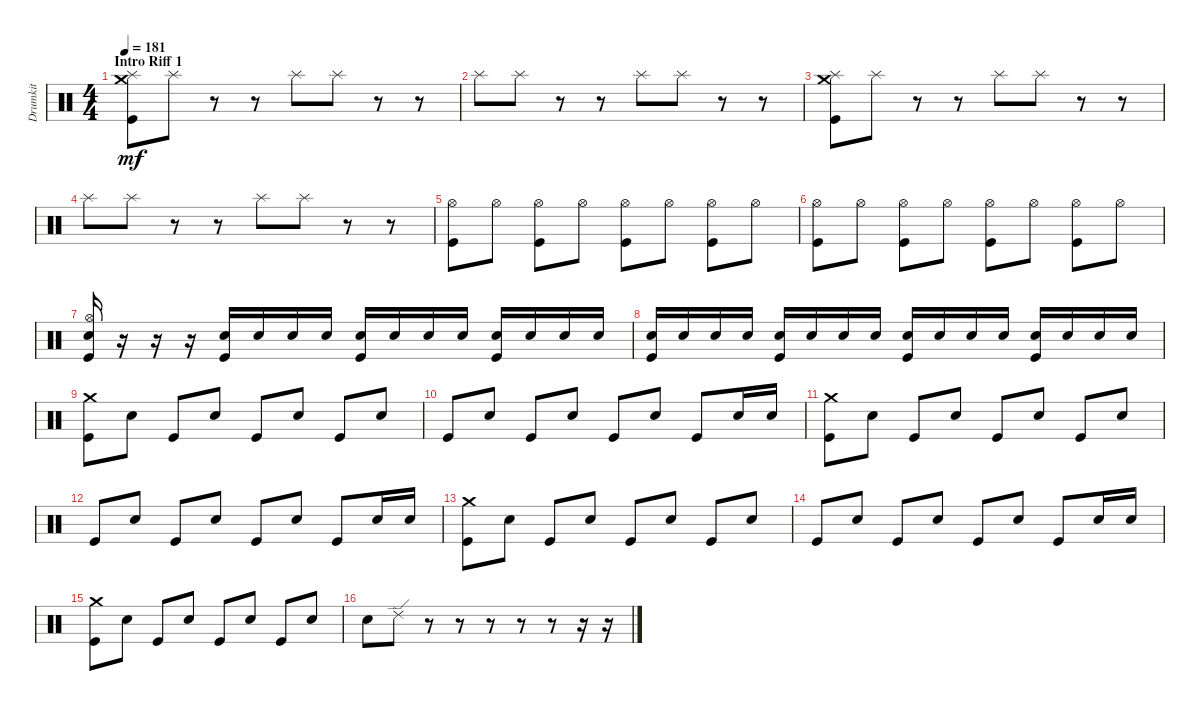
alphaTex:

\track ("Drumkit" "Drumkit") {instrument percussion}
\staff {score}
\articulation defaults
\ts (4 4)
\section ("" "Intro Riff 1")
\tempo 181
\clef neutral
\ks c
("Crash medium (hit)" "Splash (hit)" "Kick (hit)").8{dy mf} "Splash (hit)".8 r.8 r.8 "Splash (hit)".8 "Splash (hit)".8 r.8 r.8 |
"Splash (hit)".8 "Splash (hit)".8 r.8 r.8 "Splash (hit)".8 "Splash (hit)".8 r.8 r.8 |
("Crash medium (hit)" "Splash (hit)" "Kick (hit)").8 "Splash (hit)".8 r.8 r.8 "Splash (hit)".8 "Splash (hit)".8 r.8 r.8 |
"Splash (hit)".8 "Splash (hit)".8 r.8 r.8 "Splash (hit)".8 "Splash (hit)".8 r.8 r.8 |
("Kick (hit)" "Hi-Hat (open)").8 "Hi-Hat (open)".8 ("Kick (hit)" "Hi-Hat (open)").8 "Hi-Hat (open)".8 ("Hi-Hat (open)" "Kick (hit)").8 "Hi-Hat (open)".8 ("Hi-Hat (open)" "Kick (hit)").8 "Hi-Hat (open)".8 |
("Kick (hit)" "Hi-Hat (open)").8 "Hi-Hat (open)".8 ("Kick (hit)" "Hi-Hat (open)").8 "Hi-Hat (open)".8 ("Hi-Hat (open)" "Kick (hit)").8 "Hi-Hat (open)".8 ("Hi-Hat (open)" "Kick (hit)").8 "Hi-Hat (open)".8 |
("Kick (hit)" "Hi-Hat (open)" "Snare (hit) 2").16 r.16 r.16 r.16 ("Kick (hit)" "Snare (hit) 2").16 "Snare (hit) 2".16 "Snare (hit) 2".16 "Snare (hit) 2".16 ("Snare (hit) 2" "Kick (hit)").16 "Snare (hit) 2".16 "Snare (hit) 2".16 "Snare (hit) 2".16 ("Snare (hit) 2" "Kick (hit)").16 "Snare (hit) 2".16 "Snare (hit) 2".16 "Snare (hit) 2".16 |
("Kick (hit)" "Snare (hit) 2").16 "Snare (hit) 2".16 "Snare (hit) 2".16 "Snare (hit) 2".16 ("Snare (hit) 2" "Kick (hit)").16 "Snare (hit) 2".16 "Snare (hit) 2".16 "Snare (hit) 2".16 ("Snare (hit) 2" "Kick (hit)").16 "Snare (hit) 2".16 "Snare (hit) 2".16 "Snare (hit) 2".16 ("Snare (hit) 2" "Kick (hit)").16 "Snare (hit) 2".16 "Snare (hit) 2".16 "Snare (hit) 2".16 |
("Kick (hit)" "Crash medium (hit)").8 "Snare (hit) 2".8 "Kick (hit)".8 "Snare (hit) 2".8 "Kick (hit)".8 "Snare (hit) 2".8 "Kick (hit)".8 "Snare (hit) 2".8 |
"Kick (hit)".8 "Snare (hit) 2".8 "Kick (hit)".8 "Snare (hit) 2".8 "Kick (hit)".8 "Snare (hit) 2".8 "Kick (hit)".8 "Snare (hit) 2".16 "Snare (hit) 2".16 |
("Kick (hit)" "Crash medium (hit)").8 "Snare (hit) 2".8 "Kick (hit)".8 "Snare (hit) 2".8 "Kick (hit)".8 "Snare (hit) 2".8 "Kick (hit)".8 "Snare (hit) 2".8 |
"Kick (hit)".8 "Snare (hit) 2".8 "Kick (hit)".8 "Snare (hit) 2".8 "Kick (hit)".8 "Snare (hit) 2".8 "Kick (hit)".8 "Snare (hit) 2".16 "Snare (hit) 2".16 |
("Kick (hit)" "Crash medium (hit)").8 "Snare (hit) 2".8 "Kick (hit)".8 "Snare (hit) 2".8 "Kick (hit)".8 "Snare (hit) 2".8 "Kick (hit)".8 "Snare (hit) 2".8 |
"Kick (hit)".8 "Snare (hit) 2".8 "Kick (hit)".8 "Snare (hit) 2".8 "Kick (hit)".8 "Snare (hit) 2".8 "Kick (hit)".8 "Snare (hit) 2".16 "Snare (hit) 2".16 |
("Kick (hit)" "Crash medium (hit)").8 "Snare (hit) 2".8 "Kick (hit)".8 "Snare (hit) 2".8 "Kick (hit)".8 "Snare (hit) 2".8 "Kick (hit)".8 "Snare (hit) 2".8 |
"Snare (hit) 2".8 "Ride (edge) 2".8 r.8 r.8 r.8 r.8 r.8 r.16 r.16
